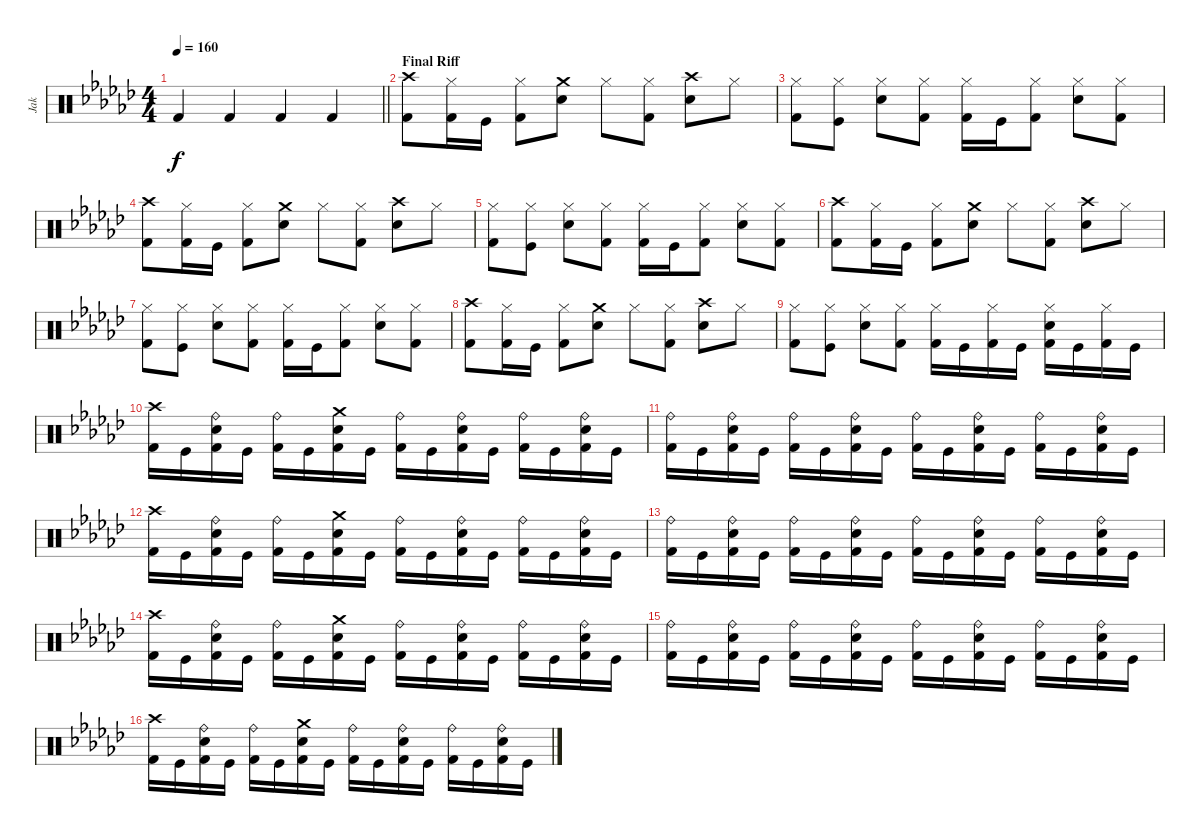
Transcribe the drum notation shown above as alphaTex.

\track ("Jak" "Jak") {instrument percussion}
\staff {score}
\articulation defaults
\ts (4 4)
\tempo 160
\clef neutral
\barLineRight lightlight
\ks ebminor "Kick (hit) 2".4{dy f} "Kick (hit) 2".4 "Kick (hit) 2".4 "Kick (hit) 2".4
|
\section ("" "Final Riff")
("Crash high (hit)" "Kick (hit) 2").8 ("Hi-Hat (closed)" "Kick (hit) 2").16 "Kick (hit)".16 ("Hi-Hat (closed)" "Kick (hit) 2").8 ("Crash medium (hit)" "Snare (hit) 2").8 "Hi-Hat (closed)".8 ("Hi-Hat (closed)" "Kick (hit) 2").8 ("Crash high (hit)" "Snare (hit) 2").8 "Hi-Hat (closed)".8 |
("Hi-Hat (closed)" "Kick (hit) 2").8 ("Hi-Hat (closed)" "Kick (hit)").8 ("Hi-Hat (closed)" "Snare (hit) 2").8 ("Hi-Hat (closed)" "Kick (hit) 2").8 ("Hi-Hat (closed)" "Kick (hit) 2").16 "Kick (hit)".16 ("Hi-Hat (closed)" "Kick (hit) 2").8 ("Hi-Hat (closed)" "Snare (hit) 2").8 ("Hi-Hat (closed)" "Kick (hit) 2").8 |
("Crash high (hit)" "Kick (hit) 2").8 ("Hi-Hat (closed)" "Kick (hit) 2").16 "Kick (hit)".16 ("Hi-Hat (closed)" "Kick (hit) 2").8 ("Crash medium (hit)" "Snare (hit) 2").8 "Hi-Hat (closed)".8 ("Hi-Hat (closed)" "Kick (hit) 2").8 ("Crash high (hit)" "Snare (hit) 2").8 "Hi-Hat (closed)".8 |
("Hi-Hat (closed)" "Kick (hit) 2").8 ("Hi-Hat (closed)" "Kick (hit)").8 ("Hi-Hat (closed)" "Snare (hit) 2").8 ("Hi-Hat (closed)" "Kick (hit) 2").8 ("Hi-Hat (closed)" "Kick (hit) 2").16 "Kick (hit)".16 ("Hi-Hat (closed)" "Kick (hit) 2").8 ("Hi-Hat (closed)" "Snare (hit) 2").8 ("Hi-Hat (closed)" "Kick (hit) 2").8 |
("Crash high (hit)" "Kick (hit) 2").8 ("Hi-Hat (closed)" "Kick (hit) 2").16 "Kick (hit)".16 ("Hi-Hat (closed)" "Kick (hit) 2").8 ("Crash medium (hit)" "Snare (hit) 2").8 "Hi-Hat (closed)".8 ("Hi-Hat (closed)" "Kick (hit) 2").8 ("Crash high (hit)" "Snare (hit) 2").8 "Hi-Hat (closed)".8 |
("Hi-Hat (closed)" "Kick (hit) 2").8 ("Hi-Hat (closed)" "Kick (hit)").8 ("Hi-Hat (closed)" "Snare (hit) 2").8 ("Hi-Hat (closed)" "Kick (hit) 2").8 ("Hi-Hat (closed)" "Kick (hit) 2").16 "Kick (hit)".16 ("Hi-Hat (closed)" "Kick (hit) 2").8 ("Hi-Hat (closed)" "Snare (hit) 2").8 ("Hi-Hat (closed)" "Kick (hit) 2").8 |
("Crash high (hit)" "Kick (hit) 2").8 ("Hi-Hat (closed)" "Kick (hit) 2").16 "Kick (hit)".16 ("Hi-Hat (closed)" "Kick (hit) 2").8 ("Crash medium (hit)" "Snare (hit) 2").8 "Hi-Hat (closed)".8 ("Hi-Hat (closed)" "Kick (hit) 2").8 ("Crash high (hit)" "Snare (hit) 2").8 "Hi-Hat (closed)".8 |
("Hi-Hat (closed)" "Kick (hit) 2").8 ("Hi-Hat (closed)" "Kick (hit)").8 ("Hi-Hat (closed)" "Snare (hit) 2").8 ("Hi-Hat (closed)" "Kick (hit) 2").8 ("Hi-Hat (closed)" "Kick (hit) 2").16 "Kick (hit)".16 ("Hi-Hat (closed)" "Kick (hit) 2").16 "Kick (hit)".16 ("Hi-Hat (closed)" "Snare (hit) 2" "Kick (hit) 2").16 "Kick (hit)".16 ("Hi-Hat (closed)" "Kick (hit) 2").16 "Kick (hit)".16 |
("Crash high (hit)" "Kick (hit) 2").16 "Kick (hit)".16 ("Ride (bell)" "Snare (hit) 2" "Kick (hit) 2").16 "Kick (hit)".16 ("Ride (bell)" "Kick (hit) 2").16 "Kick (hit)".16 ("Crash medium (hit)" "Snare (hit) 2" "Kick (hit) 2").16 "Kick (hit)".16 ("Ride (bell)" "Kick (hit) 2").16 "Kick (hit)".16 ("Ride (bell)" "Snare (hit) 2" "Kick (hit) 2").16 "Kick (hit)".16 ("Ride (bell)" "Kick (hit) 2").16 "Kick (hit)".16 ("Ride (bell)" "Snare (hit) 2" "Kick (hit) 2").16 "Kick (hit)".16 |
("Ride (bell)" "Kick (hit) 2").16 "Kick (hit)".16 ("Ride (bell)" "Snare (hit) 2" "Kick (hit) 2").16 "Kick (hit)".16 ("Ride (bell)" "Kick (hit) 2").16 "Kick (hit)".16 ("Ride (bell)" "Snare (hit) 2" "Kick (hit) 2").16 "Kick (hit)".16 ("Ride (bell)" "Kick (hit) 2").16 "Kick (hit)".16 ("Ride (bell)" "Snare (hit) 2" "Kick (hit) 2").16 "Kick (hit)".16 ("Ride (bell)" "Kick (hit) 2").16 "Kick (hit)".16 ("Ride (bell)" "Snare (hit) 2" "Kick (hit) 2").16 "Kick (hit)".16 |
("Crash high (hit)" "Kick (hit) 2").16 "Kick (hit)".16 ("Ride (bell)" "Snare (hit) 2" "Kick (hit) 2").16 "Kick (hit)".16 ("Ride (bell)" "Kick (hit) 2").16 "Kick (hit)".16 ("Crash medium (hit)" "Snare (hit) 2" "Kick (hit) 2").16 "Kick (hit)".16 ("Ride (bell)" "Kick (hit) 2").16 "Kick (hit)".16 ("Ride (bell)" "Snare (hit) 2" "Kick (hit) 2").16 "Kick (hit)".16 ("Ride (bell)" "Kick (hit) 2").16 "Kick (hit)".16 ("Ride (bell)" "Snare (hit) 2" "Kick (hit) 2").16 "Kick (hit)".16 |
("Ride (bell)" "Kick (hit) 2").16 "Kick (hit)".16 ("Ride (bell)" "Snare (hit) 2" "Kick (hit) 2").16 "Kick (hit)".16 ("Ride (bell)" "Kick (hit) 2").16 "Kick (hit)".16 ("Ride (bell)" "Snare (hit) 2" "Kick (hit) 2").16 "Kick (hit)".16 ("Ride (bell)" "Kick (hit) 2").16 "Kick (hit)".16 ("Ride (bell)" "Snare (hit) 2" "Kick (hit) 2").16 "Kick (hit)".16 ("Ride (bell)" "Kick (hit) 2").16 "Kick (hit)".16 ("Ride (bell)" "Snare (hit) 2" "Kick (hit) 2").16 "Kick (hit)".16 |
("Crash high (hit)" "Kick (hit) 2").16 "Kick (hit)".16 ("Ride (bell)" "Snare (hit) 2" "Kick (hit) 2").16 "Kick (hit)".16 ("Ride (bell)" "Kick (hit) 2").16 "Kick (hit)".16 ("Crash medium (hit)" "Snare (hit) 2" "Kick (hit) 2").16 "Kick (hit)".16 ("Ride (bell)" "Kick (hit) 2").16 "Kick (hit)".16 ("Ride (bell)" "Snare (hit) 2" "Kick (hit) 2").16 "Kick (hit)".16 ("Ride (bell)" "Kick (hit) 2").16 "Kick (hit)".16 ("Ride (bell)" "Snare (hit) 2" "Kick (hit) 2").16 "Kick (hit)".16 |
("Ride (bell)" "Kick (hit) 2").16 "Kick (hit)".16 ("Ride (bell)" "Snare (hit) 2" "Kick (hit) 2").16 "Kick (hit)".16 ("Ride (bell)" "Kick (hit) 2").16 "Kick (hit)".16 ("Ride (bell)" "Snare (hit) 2" "Kick (hit) 2").16 "Kick (hit)".16 ("Ride (bell)" "Kick (hit) 2").16 "Kick (hit)".16 ("Ride (bell)" "Snare (hit) 2" "Kick (hit) 2").16 "Kick (hit)".16 ("Ride (bell)" "Kick (hit) 2").16 "Kick (hit)".16 ("Ride (bell)" "Snare (hit) 2" "Kick (hit) 2").16 "Kick (hit)".16 |
("Crash high (hit)" "Kick (hit) 2").16 "Kick (hit)".16 ("Ride (bell)" "Snare (hit) 2" "Kick (hit) 2").16 "Kick (hit)".16 ("Ride (bell)" "Kick (hit) 2").16 "Kick (hit)".16 ("Crash medium (hit)" "Snare (hit) 2" "Kick (hit) 2").16 "Kick (hit)".16 ("Ride (bell)" "Kick (hit) 2").16 "Kick (hit)".16 ("Ride (bell)" "Snare (hit) 2" "Kick (hit) 2").16 "Kick (hit)".16 ("Ride (bell)" "Kick (hit) 2").16 "Kick (hit)".16 ("Ride (bell)" "Snare (hit) 2" "Kick (hit) 2").16 "Kick (hit)".16
